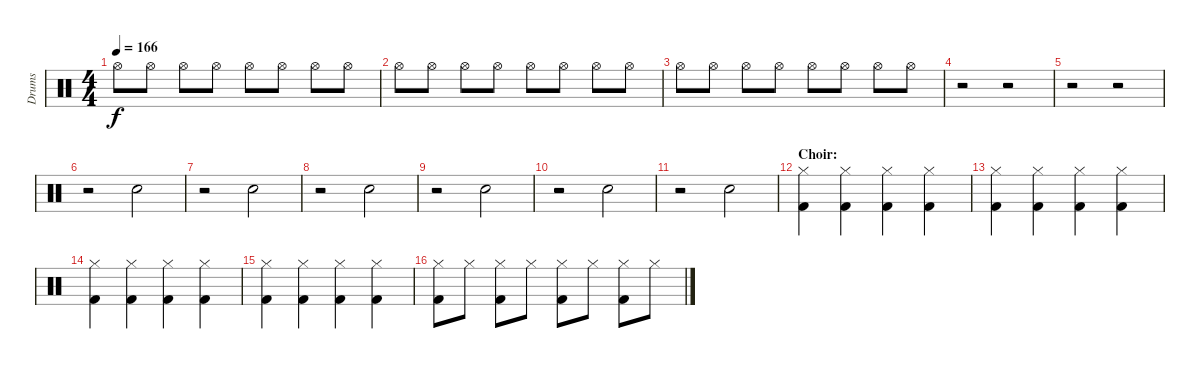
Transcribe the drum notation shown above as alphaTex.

\track ("Drums" "Drums") {instrument percussion}
\staff {score}
\articulation defaults
\ts (4 4)
\tempo 166
\clef neutral
\ks c "Hi-Hat (open)".8{dy f} "Hi-Hat (open)".8 "Hi-Hat (open)".8 "Hi-Hat (open)".8 "Hi-Hat (open)".8 "Hi-Hat (open)".8 "Hi-Hat (open)".8 "Hi-Hat (open)".8
|
"Hi-Hat (open)".8 "Hi-Hat (open)".8 "Hi-Hat (open)".8 "Hi-Hat (open)".8 "Hi-Hat (open)".8 "Hi-Hat (open)".8 "Hi-Hat (open)".8 "Hi-Hat (open)".8 |
"Hi-Hat (open)".8 "Hi-Hat (open)".8 "Hi-Hat (open)".8 "Hi-Hat (open)".8 "Hi-Hat (open)".8 "Hi-Hat (open)".8 "Hi-Hat (open)".8 "Hi-Hat (open)".8 |
r.2 r.2 |
r.2 r.2 |
r.2 "Electric Snare (hit)".2 |
r.2 "Electric Snare (hit)".2 |
r.2 "Electric Snare (hit)".2 |
r.2 "Electric Snare (hit)".2 |
r.2 "Electric Snare (hit)".2 |
r.2 "Electric Snare (hit)".2 |
\section ("" "Choir:")
("Hi-Hat (closed)" "Kick (hit) 2").4 ("Hi-Hat (closed)" "Kick (hit) 2").4 ("Hi-Hat (closed)" "Kick (hit) 2").4 ("Hi-Hat (closed)" "Kick (hit) 2").4 |
("Hi-Hat (closed)" "Kick (hit) 2").4 ("Hi-Hat (closed)" "Kick (hit) 2").4 ("Hi-Hat (closed)" "Kick (hit) 2").4 ("Hi-Hat (closed)" "Kick (hit) 2").4 |
("Hi-Hat (closed)" "Kick (hit) 2").4 ("Hi-Hat (closed)" "Kick (hit) 2").4 ("Hi-Hat (closed)" "Kick (hit) 2").4 ("Hi-Hat (closed)" "Kick (hit) 2").4 |
("Hi-Hat (closed)" "Kick (hit) 2").4 ("Hi-Hat (closed)" "Kick (hit) 2").4 ("Hi-Hat (closed)" "Kick (hit) 2").4 ("Hi-Hat (closed)" "Kick (hit) 2").4 |
("Hi-Hat (closed)" "Kick (hit) 2").8 "Hi-Hat (closed)".8 ("Hi-Hat (closed)" "Kick (hit) 2").8 "Hi-Hat (closed)".8 ("Hi-Hat (closed)" "Kick (hit) 2").8 "Hi-Hat (closed)".8 ("Hi-Hat (closed)" "Kick (hit) 2").8 "Hi-Hat (closed)".8
